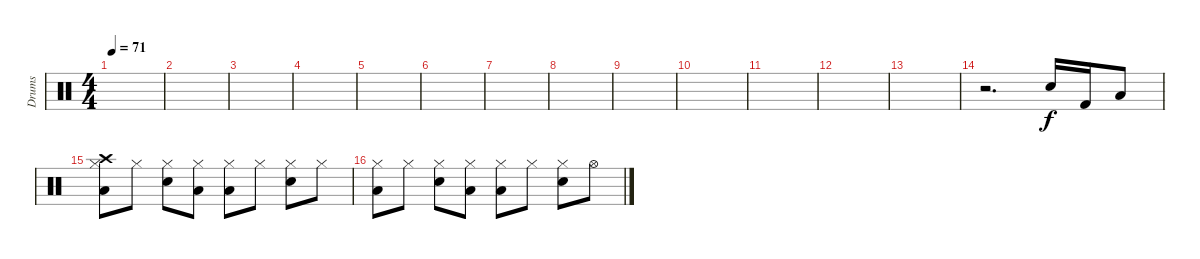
\track ("Drums" "Drums") {instrument percussion}
\staff {score}
\articulation defaults
\ts (4 4)
\tempo 71
\clef neutral
\ks c
|
|
|
|
|
|
|
|
|
|
|
|
|
r.2{d} "Electric Snare (hit)".16 "Kick (hit) 2".16 "Low Tom (hit)".8 |
("Hi-Hat (closed)" "Low Tom (hit)" "Crash high (hit)").8 "Hi-Hat (closed)".8 ("Hi-Hat (closed)" "Snare (hit) 2").8 ("Hi-Hat (closed)" "Low Tom (hit)").8 ("Hi-Hat (closed)" "Low Tom (hit)").8 "Hi-Hat (closed)".8 ("Hi-Hat (closed)" "Snare (hit) 2").8 "Hi-Hat (closed)".8 |
("Hi-Hat (closed)" "Low Tom (hit)").8 "Hi-Hat (closed)".8 ("Hi-Hat (closed)" "Snare (hit) 2").8 ("Hi-Hat (closed)" "Low Tom (hit)").8 ("Hi-Hat (closed)" "Low Tom (hit)").8 "Hi-Hat (closed)".8 ("Hi-Hat (closed)" "Snare (hit) 2").8 "Hi-Hat (open)".8
